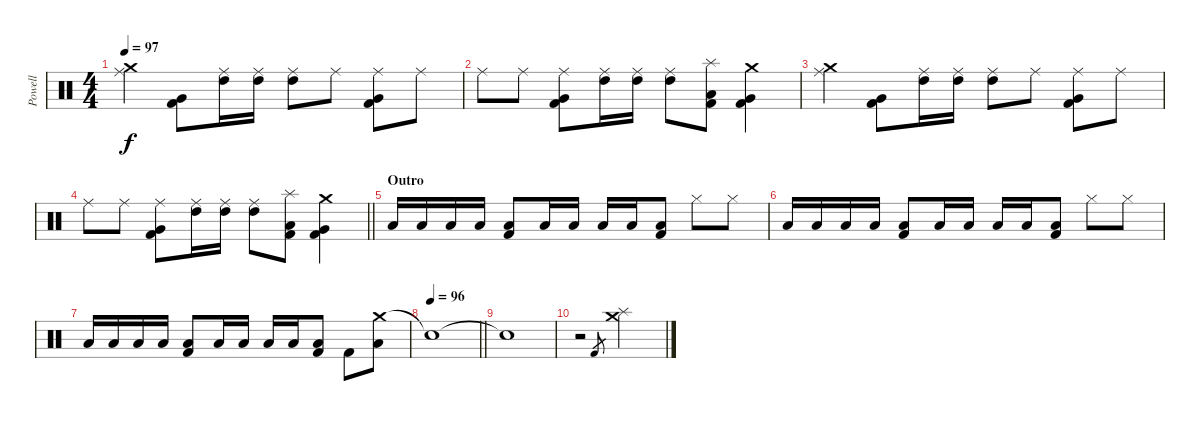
\track ("Powell" "Powell") {instrument percussion}
\staff {score}
\articulation defaults
\ts (4 4)
\tempo 97
\clef neutral
\ks c
("Crash medium (hit)" "Ride (middle)").4{dy f} ("Very Low Tom (hit)" "Kick (hit) 2").8 ("Ride (middle)" "High Tom (hit)").16 ("Ride (middle)" "High Tom (hit)").16 ("Ride (middle)" "High Tom (hit)").8 "Ride (middle)".8 ("Ride (middle)" "Very Low Tom (hit)" "Kick (hit) 2").8 "Ride (middle)".8 |
"Ride (middle)".8 "Ride (middle)".8 ("Ride (middle)" "Very Low Tom (hit)" "Kick (hit) 2").8 ("Ride (middle)" "High Tom (hit)").16 ("Ride (middle)" "High Tom (hit)").16 ("Ride (middle)" "High Tom (hit)").8 ("Splash (hit)" "Low Tom (hit)" "Kick (hit) 2").8 ("Crash medium (hit)" "Very Low Tom (hit)" "Kick (hit) 2").4 |
("Crash medium (hit)" "Ride (middle)").4 ("Very Low Tom (hit)" "Kick (hit) 2").8 ("Ride (middle)" "High Tom (hit)").16 ("Ride (middle)" "High Tom (hit)").16 ("Ride (middle)" "High Tom (hit)").8 "Ride (middle)".8 ("Ride (middle)" "Very Low Tom (hit)" "Kick (hit) 2").8 "Ride (middle)".8 |
\barLineRight lightlight "Ride (middle)".8 "Ride (middle)".8
("Ride (middle)" "Very Low Tom (hit)" "Kick (hit) 2").8 ("Ride (middle)" "High Tom (hit)").16 ("Ride (middle)" "High Tom (hit)").16 ("Ride (middle)" "High Tom (hit)").8 ("Splash (hit)" "Low Tom (hit)" "Kick (hit) 2").8 ("Crash medium (hit)" "Very Low Tom (hit)" "Kick (hit) 2").4 |
\section ("" "Outro")
"Low Tom (hit)".16 "Low Tom (hit)".16 "Low Tom (hit)".16 "Low Tom (hit)".16 ("Low Tom (hit)" "Kick (hit) 2").8 "Low Tom (hit)".16 "Low Tom (hit)".16 "Low Tom (hit)".16 "Low Tom (hit)".16 ("Low Tom (hit)" "Kick (hit) 2").8 "Hi-Hat (closed)".8 "Hi-Hat (closed)".8 |
"Low Tom (hit)".16 "Low Tom (hit)".16 "Low Tom (hit)".16 "Low Tom (hit)".16 ("Low Tom (hit)" "Kick (hit) 2").8 "Low Tom (hit)".16 "Low Tom (hit)".16 "Low Tom (hit)".16 "Low Tom (hit)".16 ("Low Tom (hit)" "Kick (hit) 2").8 "Hi-Hat (closed)".8 "Hi-Hat (closed)".8 |
"Low Tom (hit)".16 "Low Tom (hit)".16 "Low Tom (hit)".16 "Low Tom (hit)".16 ("Low Tom (hit)" "Kick (hit) 2").8 "Low Tom (hit)".16 "Low Tom (hit)".16 "Low Tom (hit)".16 "Low Tom (hit)".16 ("Low Tom (hit)" "Kick (hit) 2").8 "Kick (hit) 2".8 ("Crash medium (hit)" "Low Tom (hit)").8 |
\tempo 96
\barLineRight lightlight "Snare (hit)"{t}.1
|
"Snare (hit)"{t}.1 |
r.2 "Kick (hit) 2".8{gr} ("Crash medium (hit)" "Splash (hit)").2
